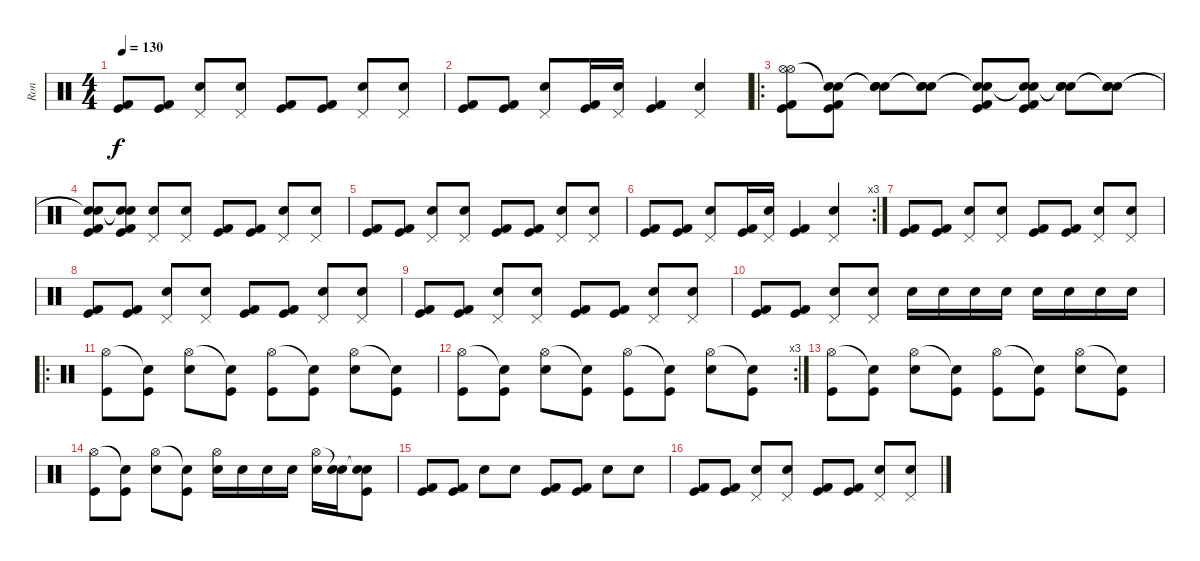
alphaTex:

\track ("Ron" "Ron") {instrument percussion}
\staff {score}
\articulation defaults
\ts (4 4)
\tempo 130
\clef neutral
\ks c
("Kick (hit) 2" "Kick (hit)").8{dy f} ("Kick (hit) 2" "Kick (hit)").8 ("Pedal Hi-Hat (hit)" "Electric Snare (hit)").8 ("Pedal Hi-Hat (hit)" "Electric Snare (hit)").8 ("Kick (hit) 2" "Kick (hit)").8 ("Kick (hit) 2" "Kick (hit)").8 ("Pedal Hi-Hat (hit)" "Electric Snare (hit)").8 ("Pedal Hi-Hat (hit)" "Electric Snare (hit)").8 |
("Kick (hit) 2" "Kick (hit)").8 ("Kick (hit) 2" "Kick (hit)").8 ("Pedal Hi-Hat (hit)" "Electric Snare (hit)").8 ("Kick (hit) 2" "Kick (hit)").16 ("Pedal Hi-Hat (hit)" "Electric Snare (hit)").16 ("Kick (hit) 2" "Kick (hit)").4 ("Pedal Hi-Hat (hit)" "Electric Snare (hit)").4 |
\ro
("Hi-Hat (open)" "Hi-Hat (open)" "Kick (hit) 2" "Kick (hit)").8 ("Snare (hit)"{t} "Snare (hit)"{t} "Kick (hit) 2" "Kick (hit)").8 ("Snare (hit)"{t} "Snare (hit)"{t} "Electric Snare (hit)").8 ("Snare (hit)"{t} "Snare (hit)"{t} "Electric Snare (hit)").8 ("Snare (hit)"{t} "Snare (hit)"{t} "Kick (hit) 2" "Kick (hit)").8 ("Snare (hit)"{t} "Snare (hit)"{t} "Kick (hit) 2" "Kick (hit)").8 ("Snare (hit)"{t} "Snare (hit)"{t} "Electric Snare (hit)").8 ("Snare (hit)"{t} "Snare (hit)"{t} "Electric Snare (hit)").8 |
("Snare (hit)"{t} "Snare (hit)"{t} "Kick (hit) 2" "Kick (hit)").8 ("Snare (hit)"{t} "Snare (hit)"{t} "Kick (hit) 2" "Kick (hit)").8 ("Pedal Hi-Hat (hit)" "Electric Snare (hit)").8 ("Pedal Hi-Hat (hit)" "Electric Snare (hit)").8 ("Kick (hit) 2" "Kick (hit)").8 ("Kick (hit) 2" "Kick (hit)").8 ("Pedal Hi-Hat (hit)" "Electric Snare (hit)").8 ("Pedal Hi-Hat (hit)" "Electric Snare (hit)").8 |
("Kick (hit) 2" "Kick (hit)").8 ("Kick (hit) 2" "Kick (hit)").8 ("Pedal Hi-Hat (hit)" "Electric Snare (hit)").8 ("Pedal Hi-Hat (hit)" "Electric Snare (hit)").8 ("Kick (hit) 2" "Kick (hit)").8 ("Kick (hit) 2" "Kick (hit)").8 ("Pedal Hi-Hat (hit)" "Electric Snare (hit)").8 ("Pedal Hi-Hat (hit)" "Electric Snare (hit)").8 |
\rc 3
("Kick (hit) 2" "Kick (hit)").8 ("Kick (hit) 2" "Kick (hit)").8 ("Pedal Hi-Hat (hit)" "Electric Snare (hit)").8 ("Kick (hit) 2" "Kick (hit)").16 ("Pedal Hi-Hat (hit)" "Electric Snare (hit)").16 ("Kick (hit) 2" "Kick (hit)").4 ("Pedal Hi-Hat (hit)" "Electric Snare (hit)").4 |
("Kick (hit) 2" "Kick (hit)").8 ("Kick (hit) 2" "Kick (hit)").8 ("Pedal Hi-Hat (hit)" "Electric Snare (hit)").8 ("Pedal Hi-Hat (hit)" "Electric Snare (hit)").8 ("Kick (hit) 2" "Kick (hit)").8 ("Kick (hit) 2" "Kick (hit)").8 ("Pedal Hi-Hat (hit)" "Electric Snare (hit)").8 ("Pedal Hi-Hat (hit)" "Electric Snare (hit)").8 |
("Kick (hit) 2" "Kick (hit)").8 ("Kick (hit) 2" "Kick (hit)").8 ("Pedal Hi-Hat (hit)" "Electric Snare (hit)").8 ("Pedal Hi-Hat (hit)" "Electric Snare (hit)").8 ("Kick (hit) 2" "Kick (hit)").8 ("Kick (hit) 2" "Kick (hit)").8 ("Pedal Hi-Hat (hit)" "Electric Snare (hit)").8 ("Pedal Hi-Hat (hit)" "Electric Snare (hit)").8 |
("Kick (hit) 2" "Kick (hit)").8 ("Kick (hit) 2" "Kick (hit)").8 ("Pedal Hi-Hat (hit)" "Electric Snare (hit)").8 ("Pedal Hi-Hat (hit)" "Electric Snare (hit)").8 ("Kick (hit) 2" "Kick (hit)").8 ("Kick (hit) 2" "Kick (hit)").8 ("Pedal Hi-Hat (hit)" "Electric Snare (hit)").8 ("Pedal Hi-Hat (hit)" "Electric Snare (hit)").8 |
("Kick (hit) 2" "Kick (hit)").8 ("Kick (hit) 2" "Kick (hit)").8 ("Pedal Hi-Hat (hit)" "Electric Snare (hit)").8 ("Pedal Hi-Hat (hit)" "Electric Snare (hit)").8 "Electric Snare (hit)".16 "Electric Snare (hit)".16 "Electric Snare (hit)".16 "Electric Snare (hit)".16 "Electric Snare (hit)".16 "Electric Snare (hit)".16 "Electric Snare (hit)".16 "Electric Snare (hit)".16 |
\ro
("Hi-Hat (open)" "Kick (hit)").8 ("Snare (hit)"{t} "Kick (hit)").8 ("Hi-Hat (open)" "Electric Snare (hit)").8 ("Snare (hit)"{t} "Kick (hit)").8 ("Hi-Hat (open)" "Kick (hit)").8 ("Snare (hit)"{t} "Kick (hit)").8 ("Hi-Hat (open)" "Electric Snare (hit)").8 ("Snare (hit)"{t} "Kick (hit)").8 |
\rc 3
("Hi-Hat (open)" "Kick (hit)").8 ("Snare (hit)"{t} "Kick (hit)").8 ("Hi-Hat (open)" "Electric Snare (hit)").8 ("Snare (hit)"{t} "Kick (hit)").8 ("Hi-Hat (open)" "Kick (hit)").8 ("Snare (hit)"{t} "Kick (hit)").8 ("Hi-Hat (open)" "Electric Snare (hit)").8 ("Snare (hit)"{t} "Kick (hit)").8 |
("Hi-Hat (open)" "Kick (hit)").8 ("Snare (hit)"{t} "Kick (hit)").8 ("Hi-Hat (open)" "Electric Snare (hit)").8 ("Snare (hit)"{t} "Kick (hit)").8 ("Hi-Hat (open)" "Kick (hit)").8 ("Snare (hit)"{t} "Kick (hit)").8 ("Hi-Hat (open)" "Electric Snare (hit)").8 ("Snare (hit)"{t} "Kick (hit)").8 |
("Hi-Hat (open)" "Kick (hit)").8 ("Snare (hit)"{t} "Kick (hit)").8 ("Hi-Hat (open)" "Electric Snare (hit)").8 ("Snare (hit)"{t} "Kick (hit)").8 ("Hi-Hat (open)" "Electric Snare (hit)").16 "Electric Snare (hit)".16 "Electric Snare (hit)".16 "Electric Snare (hit)".16 ("Hi-Hat (open)" "Electric Snare (hit)").16 ("Snare (hit)"{t} "Electric Snare (hit)").16 ("Snare (hit)"{t} "Electric Snare (hit)" "Kick (hit)").8 |
("Kick (hit) 2" "Kick (hit)").8 ("Kick (hit) 2" "Kick (hit)").8 "Electric Snare (hit)".8 "Electric Snare (hit)".8 ("Kick (hit) 2" "Kick (hit)").8 ("Kick (hit) 2" "Kick (hit)").8 "Electric Snare (hit)".8 "Electric Snare (hit)".8 |
("Kick (hit) 2" "Kick (hit)").8 ("Kick (hit) 2" "Kick (hit)").8 ("Pedal Hi-Hat (hit)" "Electric Snare (hit)").8 ("Pedal Hi-Hat (hit)" "Electric Snare (hit)").8 ("Kick (hit) 2" "Kick (hit)").8 ("Kick (hit) 2" "Kick (hit)").8 ("Pedal Hi-Hat (hit)" "Electric Snare (hit)").8 ("Pedal Hi-Hat (hit)" "Electric Snare (hit)").8
